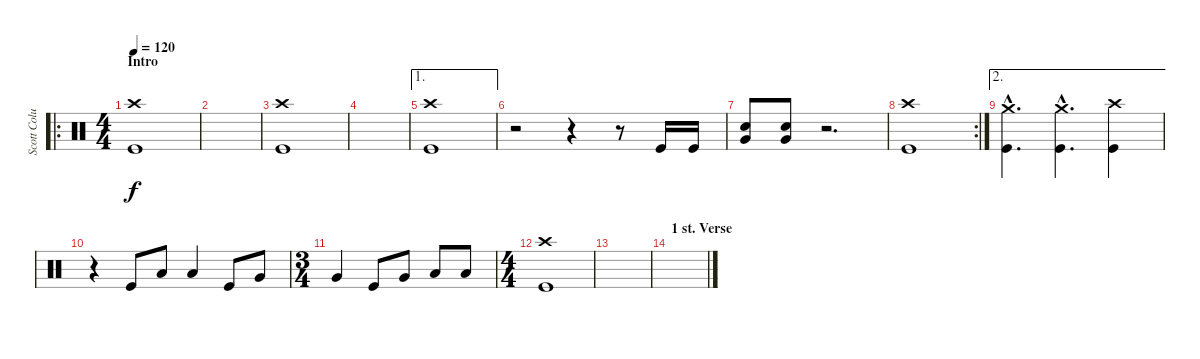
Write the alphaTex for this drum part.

\track ("Scott Columbus" "Scott Colu") {instrument percussion}
\staff {score}
\articulation defaults
\ro
\ts (4 4)
\section ("" "Intro")
\tempo 120
\clef neutral
\ks c
("Crash high (hit)" "Kick (hit)").1{dy f} |
|
("Crash high (hit)" "Kick (hit)").1 |
|
\ae 1
("Crash high (hit)" "Kick (hit)").1 |
r.2 r.4 r.8 "Kick (hit)".16 "Kick (hit)".16 |
("Very Low Tom (hit)" "Snare (hit) 2").8 ("Very Low Tom (hit)" "Snare (hit) 2").8 r.2{d} |
\rc 2
("Crash high (hit)" "Kick (hit)").1 |
\ae 2
("Crash medium (hit)"{hac} "Kick (hit)"{hac}).4{d} ("Crash medium (hit)"{hac} "Kick (hit)"{hac}).4{d} ("Crash high (hit)" "Kick (hit)").4 |
r.4 "Kick (hit)".8 "Low Tom (hit)".8 "Low Tom (hit)".4 "Kick (hit)".8 "Very Low Tom (hit)".8 |
\ts (3 4)
"Very Low Tom (hit)".4 "Kick (hit)".8 "Very Low Tom (hit)".8 "Low Floor Tom (hit)".8 "Low Floor Tom (hit)".8 |
\ts (4 4)
("Crash high (hit)" "Kick (hit)").1 |
|
\section ("" "1 st. Verse")
